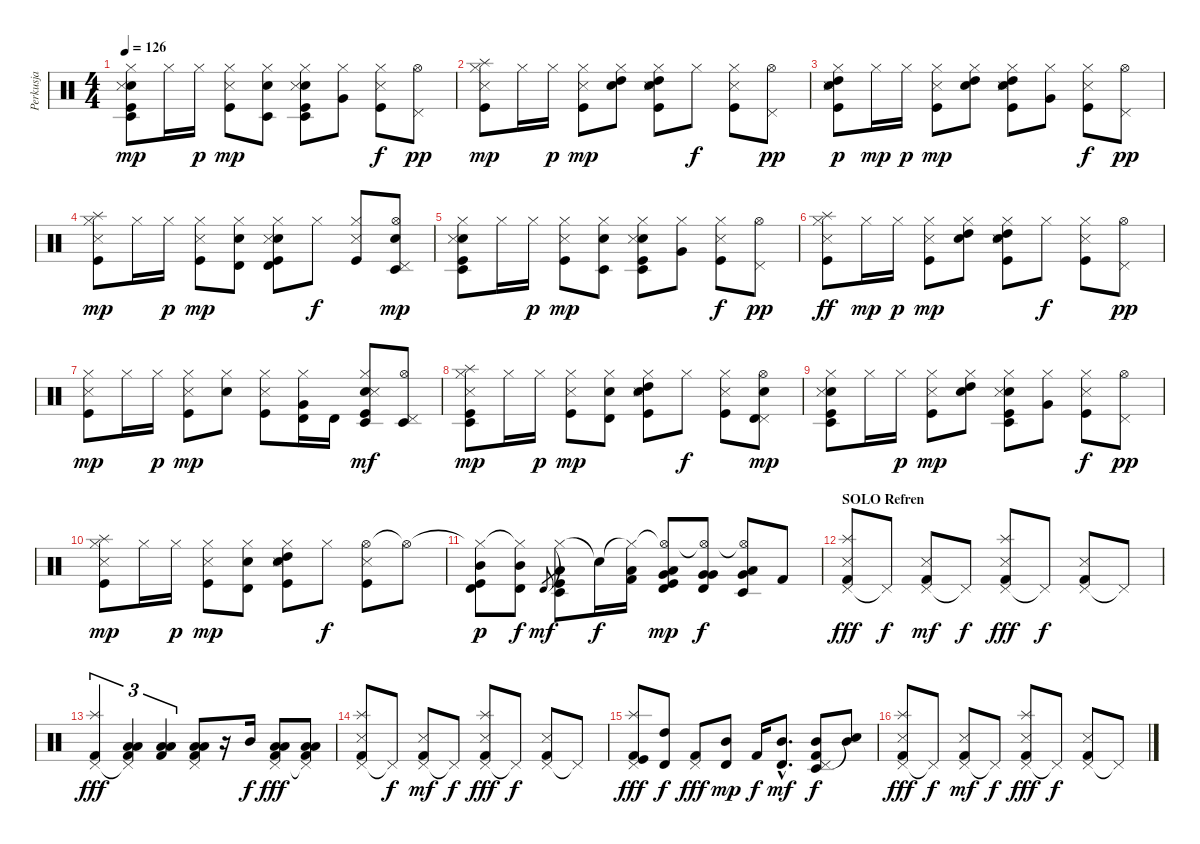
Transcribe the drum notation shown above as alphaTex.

\track ("Perkusja" "Perkusja") {instrument percussion}
\staff {score}
\articulation defaults
\ts (4 4)
\tempo 126
\clef neutral
\ks c
("Hi-Hat (closed)" "Kick (hit)" "Timbale low (hit)" "Electric Snare (hit)" "Snare (side stick) 3").8{dy mp} "Hi-Hat (closed)".16 "Hi-Hat (closed)".16{dy p} ("Hi-Hat (closed)" "Kick (hit)" "Snare (side stick) 3").8{dy mp} ("Hi-Hat (closed)" "Timbale low (hit)" "Electric Snare (hit)").8 ("Hi-Hat (closed)" "Kick (hit)" "Timbale low (hit)" "Electric Snare (hit)" "Snare (side stick) 3").8 ("Hi-Hat (closed)" "Very Low Tom (hit)").8 ("Hi-Hat (closed)" "Kick (hit)" "Snare (side stick) 3").8{dy f} ("Hi-Hat (open)" "Pedal Hi-Hat (hit)").8{dy pp} |
("Hi-Hat (closed)" "Kick (hit)" "Splash (hit)" "Snare (side stick) 3").8{dy mp} "Hi-Hat (closed)".16 "Hi-Hat (closed)".16{dy p} ("Hi-Hat (closed)" "Kick (hit)" "Snare (side stick) 3").8{dy mp} ("Hi-Hat (closed)" "High Tom (hit)" "Electric Snare (hit)").8 ("Hi-Hat (closed)" "Kick (hit)" "High Tom (hit)" "Electric Snare (hit)" "Snare (side stick) 3").8 "Hi-Hat (closed)".8{dy f} ("Hi-Hat (closed)" "Kick (hit)" "Snare (side stick) 3").8 ("Hi-Hat (open)" "Pedal Hi-Hat (hit)").8{dy pp} |
("Hi-Hat (closed)" "Kick (hit)" "High Tom (hit)" "Electric Snare (hit)" "Snare (side stick) 3").8{dy p} "Hi-Hat (closed)".16{dy mp} "Hi-Hat (closed)".16{dy p} ("Hi-Hat (closed)" "Kick (hit)" "Snare (side stick) 3").8{dy mp} ("Hi-Hat (closed)" "High Tom (hit)" "Electric Snare (hit)").8 ("Hi-Hat (closed)" "Kick (hit)" "High Tom (hit)" "Electric Snare (hit)" "Snare (side stick) 3").8 ("Hi-Hat (closed)" "Very Low Tom (hit)").8 ("Hi-Hat (closed)" "Kick (hit)" "Snare (side stick) 3").8{dy f} ("Hi-Hat (open)" "Pedal Hi-Hat (hit)").8{dy pp} |
("Hi-Hat (closed)" "Kick (hit)" "Splash (hit)" "Snare (side stick) 3").8{dy mp} "Hi-Hat (closed)".16 "Hi-Hat (closed)".16{dy p} ("Hi-Hat (closed)" "Kick (hit)" "Snare (side stick) 3").8{dy mp} ("Hi-Hat (closed)" "Timbale high (hit)" "Electric Snare (hit)").8 ("Hi-Hat (closed)" "Kick (hit)" "Timbale high (hit)" "Electric Snare (hit)" "Snare (side stick) 3").8 "Hi-Hat (closed)".8{dy f} ("Hi-Hat (closed)" "Kick (hit)" "Snare (side stick) 3").8 ("Hi-Hat (open)" "Pedal Hi-Hat (hit)" "Timbale low (hit)" "Electric Snare (hit)").8{dy mp} |
("Hi-Hat (closed)" "Kick (hit)" "Timbale low (hit)" "Electric Snare (hit)" "Snare (side stick) 3").8 "Hi-Hat (closed)".16 "Hi-Hat (closed)".16{dy p} ("Hi-Hat (closed)" "Kick (hit)" "Snare (side stick) 3").8{dy mp} ("Hi-Hat (closed)" "Timbale low (hit)" "Electric Snare (hit)").8 ("Hi-Hat (closed)" "Kick (hit)" "Timbale low (hit)" "Electric Snare (hit)" "Snare (side stick) 3").8 ("Hi-Hat (closed)" "Very Low Tom (hit)").8 ("Hi-Hat (closed)" "Kick (hit)" "Snare (side stick) 3").8{dy f} ("Hi-Hat (open)" "Pedal Hi-Hat (hit)").8{dy pp} |
("Hi-Hat (closed)" "Kick (hit)" "Splash (hit)" "Snare (side stick) 3").8{dy ff} "Hi-Hat (closed)".16{dy mp} "Hi-Hat (closed)".16{dy p} ("Hi-Hat (closed)" "Kick (hit)" "Snare (side stick) 3").8{dy mp} ("Hi-Hat (closed)" "High Tom (hit)" "Electric Snare (hit)").8 ("Hi-Hat (closed)" "Kick (hit)" "High Tom (hit)" "Electric Snare (hit)" "Snare (side stick) 3").8 "Hi-Hat (closed)".8{dy f} ("Hi-Hat (closed)" "Kick (hit)" "Snare (side stick) 3").8 ("Hi-Hat (open)" "Pedal Hi-Hat (hit)").8{dy pp} |
("Hi-Hat (closed)" "Kick (hit)" "Snare (side stick) 3").8{dy mp} "Hi-Hat (closed)".16 "Hi-Hat (closed)".16{dy p} ("Hi-Hat (closed)" "Kick (hit)" "Snare (side stick) 3").8{dy mp} ("Hi-Hat (closed)" "Electric Snare (hit)").8 ("Hi-Hat (closed)" "Kick (hit)" "Snare (side stick) 3").8 ("Hi-Hat (closed)" "Very Low Tom (hit)" "Timbale high (hit)").16 "Timbale high (hit)".16 ("Hi-Hat (closed)" "Kick (hit)" "Timbale low (hit)" "Electric Snare (hit)" "Snare (side stick) 3").8{dy mf} ("Hi-Hat (open)" "Pedal Hi-Hat (hit)" "Timbale low (hit)").8 |
("Hi-Hat (closed)" "Kick (hit)" "Timbale low (hit)" "Splash (hit)" "Snare (side stick) 3").8{dy mp} "Hi-Hat (closed)".16 "Hi-Hat (closed)".16{dy p} ("Hi-Hat (closed)" "Kick (hit)" "Snare (side stick) 3").8{dy mp} ("Hi-Hat (closed)" "Timbale high (hit)" "Electric Snare (hit)").8 ("Hi-Hat (closed)" "Kick (hit)" "High Tom (hit)" "Electric Snare (hit)" "Snare (side stick) 3").8 "Hi-Hat (closed)".8{dy f} ("Hi-Hat (closed)" "Kick (hit)" "Snare (side stick) 3").8 ("Hi-Hat (open)" "Pedal Hi-Hat (hit)" "Timbale high (hit)" "Electric Snare (hit)").8{dy mp} |
("Hi-Hat (closed)" "Kick (hit)" "Timbale low (hit)" "Electric Snare (hit)" "Snare (side stick) 3").8 "Hi-Hat (closed)".16 "Hi-Hat (closed)".16{dy p} ("Hi-Hat (closed)" "Kick (hit)" "Snare (side stick) 3").8{dy mp} ("Hi-Hat (closed)" "High Tom (hit)" "Electric Snare (hit)").8 ("Hi-Hat (closed)" "Kick (hit)" "Timbale low (hit)" "Electric Snare (hit)" "Snare (side stick) 3").8 ("Hi-Hat (closed)" "Very Low Tom (hit)").8 ("Hi-Hat (closed)" "Kick (hit)" "Snare (side stick) 3").8{dy f} ("Hi-Hat (open)" "Pedal Hi-Hat (hit)").8{dy pp} |
("Hi-Hat (closed)" "Kick (hit)" "Splash (hit)" "Snare (side stick) 3").8{dy mp} "Hi-Hat (closed)".16 "Hi-Hat (closed)".16{dy p} ("Hi-Hat (closed)" "Kick (hit)" "Snare (side stick) 3").8{dy mp} ("Hi-Hat (closed)" "Timbale high (hit)" "Electric Snare (hit)").8 ("Hi-Hat (closed)" "Kick (hit)" "High Tom (hit)" "Electric Snare (hit)" "Snare (side stick) 3").8 "Hi-Hat (closed)".8{dy f} ("Hi-Hat (open)" "Kick (hit)" "Snare (side stick) 3").8 "Hi-Hat (open)"{t}.8 |
("Hi-Hat (closed)"{t} "Kick (hit)" "Timbale high (hit)" "Mid Tom (hit)").8{dy p} ("Hi-Hat (closed)"{t} "Timbale high (hit)" "Mid Tom (hit)").8{dy f} "Timbale high (hit)".8{gr dy mf} ("Hi-Hat (closed)"{t} "Kick (hit)" "Timbale low (hit)" "Low Tom (hit)").8 "Snare (hit)"{t}.16{dy f} ("Hi-Hat (closed)"{t} "Kick (hit) 2" "Low Tom (hit)").16 ("Hi-Hat (open)"{t} "Kick (hit)" "Timbale high (hit)" "Very Low Tom (hit)" "Low Tom (hit)").8{dy mp} ("Hi-Hat (open)"{t} "Timbale high (hit)" "Very Low Tom (hit)" "Very Low Tom (hit)").8{dy f} ("Hi-Hat (open)"{t} "Timbale low (hit)" "Low Floor Tom (hit)" "Very Low Tom (hit)").8 "Kick (hit) 2".8 |
\section ("" "SOLO Refren")
("Pedal Hi-Hat (hit)" "Kick (hit) 2" "Splash (hit)" "Snare (side stick) 3").8{dy fff} "Pedal Hi-Hat (hit)"{t}.8{dy f} ("Pedal Hi-Hat (hit)" "Kick (hit) 2" "Snare (side stick) 3").8{dy mf} "Pedal Hi-Hat (hit)"{t}.8{dy f} ("Pedal Hi-Hat (hit)" "Kick (hit) 2" "Splash (hit)" "Snare (side stick) 3").8{dy fff} "Pedal Hi-Hat (hit)"{t}.8{dy f} ("Pedal Hi-Hat (hit)" "Kick (hit) 2" "Snare (side stick) 3").8 "Pedal Hi-Hat (hit)"{t}.8 |
("Pedal Hi-Hat (hit)" "Kick (hit) 2" "Splash (hit)").4{tu (3 2) dy fff} ("Pedal Hi-Hat (hit)"{t} "Kick (hit) 2" "Low Floor Tom (hit)" "Low Floor Tom (hit)").4{tu (3 2)} ("Kick (hit) 2" "Low Floor Tom (hit)" "Low Floor Tom (hit)").4{tu (3 2)} ("Pedal Hi-Hat (hit)" "Kick (hit) 2" "Low Floor Tom (hit)" "Low Floor Tom (hit)").8 r.16 "Mid Tom (hit)".16{dy f} ("Pedal Hi-Hat (hit)" "Kick (hit) 2" "Low Floor Tom (hit)" "Low Floor Tom (hit)").8{dy fff} ("Pedal Hi-Hat (hit)"{t} "Kick (hit) 2" "Low Floor Tom (hit)" "Low Floor Tom (hit)").8 |
("Pedal Hi-Hat (hit)" "Kick (hit) 2" "Splash (hit)" "Snare (side stick) 3").8 "Pedal Hi-Hat (hit)"{t}.8{dy f} ("Pedal Hi-Hat (hit)" "Kick (hit) 2" "Snare (side stick) 3").8{dy mf} "Pedal Hi-Hat (hit)"{t}.8{dy f} ("Pedal Hi-Hat (hit)" "Kick (hit) 2" "Splash (hit)" "Snare (side stick) 3").8{dy fff} "Pedal Hi-Hat (hit)"{t}.8{dy f} ("Pedal Hi-Hat (hit)" "Kick (hit) 2" "Snare (side stick) 3").8 "Pedal Hi-Hat (hit)"{t}.8 |
("Pedal Hi-Hat (hit)" "Kick (hit) 2" "Kick (hit)" "Splash (hit)").8{dy fff} ("Timbale high (hit)" "High Tom (hit)").8{dy f} ("Pedal Hi-Hat (hit)" "Kick (hit) 2").8{dy fff} ("Timbale high (hit)" "Mid Tom (hit)").8{dy mp} "Kick (hit) 2".16{dy f} ("Timbale high (hit)"{hac} "Mid Tom (hit)"{hac}).8{d dy mf} ("Pedal Hi-Hat (hit)" "Kick (hit) 2" "Timbale low (hit)" "Mid Tom (hit)").8{dy f} ("Snare (hit)"{t} "Mid Tom (hit)").8 |
("Pedal Hi-Hat (hit)" "Kick (hit) 2" "Splash (hit)" "Snare (side stick) 3").8{dy fff} "Pedal Hi-Hat (hit)"{t}.8{dy f} ("Pedal Hi-Hat (hit)" "Kick (hit) 2" "Snare (side stick) 3").8{dy mf} "Pedal Hi-Hat (hit)"{t}.8{dy f} ("Pedal Hi-Hat (hit)" "Kick (hit) 2" "Splash (hit)" "Snare (side stick) 3").8{dy fff} "Pedal Hi-Hat (hit)"{t}.8{dy f} ("Pedal Hi-Hat (hit)" "Kick (hit) 2" "Snare (side stick) 3").8 "Pedal Hi-Hat (hit)"{t}.8
